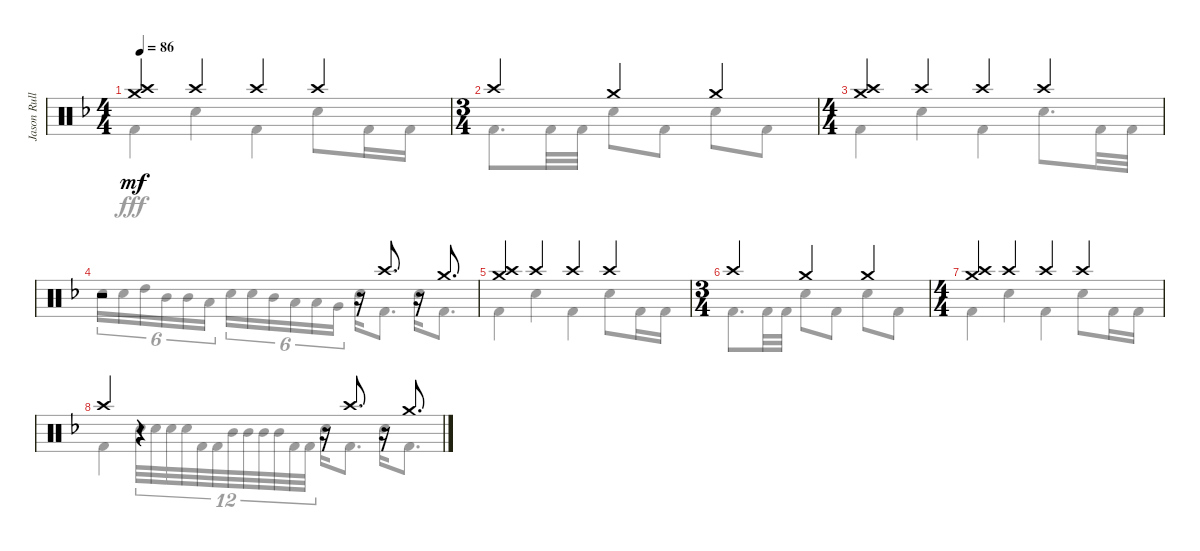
\track ("Jason Rullo Drums" "Jason Rull") {instrument percussion}
\staff {score}
\articulation defaults
\voice
\ts (4 4)
\tempo 86
\clef neutral
\ks dminor
("Crash high (hit)" "Crash medium (hit)").4{dy mf} "Crash high (hit)".4 "Crash high (hit)".4 "Crash high (hit)".4 |
\ts (3 4)
"Crash high (hit)".4 "Crash medium (hit)".4 "Crash medium (hit)".4 |
\ts (4 4)
("Crash high (hit)" "Crash medium (hit)").4 "Crash high (hit)".4 "Crash high (hit)".4 "Crash high (hit)".4 |
r.2 r.16 "Crash high (hit)".8{d} r.16 "Crash medium (hit)".8{d} |
("Crash high (hit)" "Crash medium (hit)").4 "Crash high (hit)".4 "Crash high (hit)".4 "Crash high (hit)".4 |
\ts (3 4)
"Crash high (hit)".4 "Crash medium (hit)".4 "Crash medium (hit)".4 |
\ts (4 4)
("Crash high (hit)" "Crash medium (hit)").4 "Crash high (hit)".4 "Crash high (hit)".4 "Crash high (hit)".4 |
"Crash high (hit)".4 r.4 r.16 "Crash high (hit)".8{d} r.16 "Crash medium (hit)".8{d}
\voice
\clef neutral
\ottava regular
\simile none
\ks dminor "Kick (hit) 2".4{dy fff} "Electric Snare (hit)".4 "Kick (hit) 2".4 "Electric Snare (hit)".8 "Kick (hit) 2".16 "Kick (hit) 2".16
|
"Kick (hit) 2".8{d} "Kick (hit) 2".32 "Kick (hit) 2".32 "Electric Snare (hit)".8 "Kick (hit) 2".8 "Electric Snare (hit)".8 "Kick (hit) 2".8 |
"Kick (hit) 2".4 "Electric Snare (hit)".4 "Kick (hit) 2".4 "Electric Snare (hit)".8{d} "Kick (hit) 2".32 "Kick (hit) 2".32 |
"Electric Snare (hit)".16{tu (6 4)} "Electric Snare (hit)".16{tu (6 4)} "High Tom (hit)".16{tu (6 4)} "Mid Tom (hit)".16{tu (6 4)} "Mid Tom (hit)".16{tu (6 4)} "Low Tom (hit)".16{tu (6 4)} "Electric Snare (hit)".16{tu (6 4)} "Electric Snare (hit)".16{tu (6 4)} "Mid Tom (hit)".16{tu (6 4)} "Low Tom (hit)".16{tu (6 4)} "Low Tom (hit)".16{tu (6 4)} "Very Low Tom (hit)".16{tu (6 4)} "Electric Snare (hit)".16 "Kick (hit) 2".8{d} "Electric Snare (hit)".16 "Kick (hit) 2".8{d} |
"Kick (hit) 2".4 "Electric Snare (hit)".4 "Kick (hit) 2".4 "Electric Snare (hit)".8 "Kick (hit) 2".16 "Kick (hit) 2".16 |
"Kick (hit) 2".8{d} "Kick (hit) 2".32 "Kick (hit) 2".32 "Electric Snare (hit)".8 "Kick (hit) 2".8 "Electric Snare (hit)".8 "Kick (hit) 2".8 |
"Kick (hit) 2".4 "Electric Snare (hit)".4 "Kick (hit) 2".4 "Electric Snare (hit)".8 "Kick (hit) 2".16 "Kick (hit) 2".16 |
"Kick (hit) 2".4 "Electric Snare (hit)".32{tu (12 8)} "Electric Snare (hit)".32{tu (12 8)} "Electric Snare (hit)".32{tu (12 8)} "Electric Snare (hit)".32{tu (12 8)} "Kick (hit) 2".32{tu (12 8)} "Kick (hit) 2".32{tu (12 8)} "Mid Tom (hit)".32{tu (12 8)} "Mid Tom (hit)".32{tu (12 8)} "Mid Tom (hit)".32{tu (12 8)} "Mid Tom (hit)".32{tu (12 8)} "Kick (hit) 2".32{tu (12 8)} "Kick (hit) 2".32{tu (12 8)} "Electric Snare (hit)".16 "Kick (hit) 2".8{d} "Electric Snare (hit)".16 "Kick (hit) 2".8{d}
